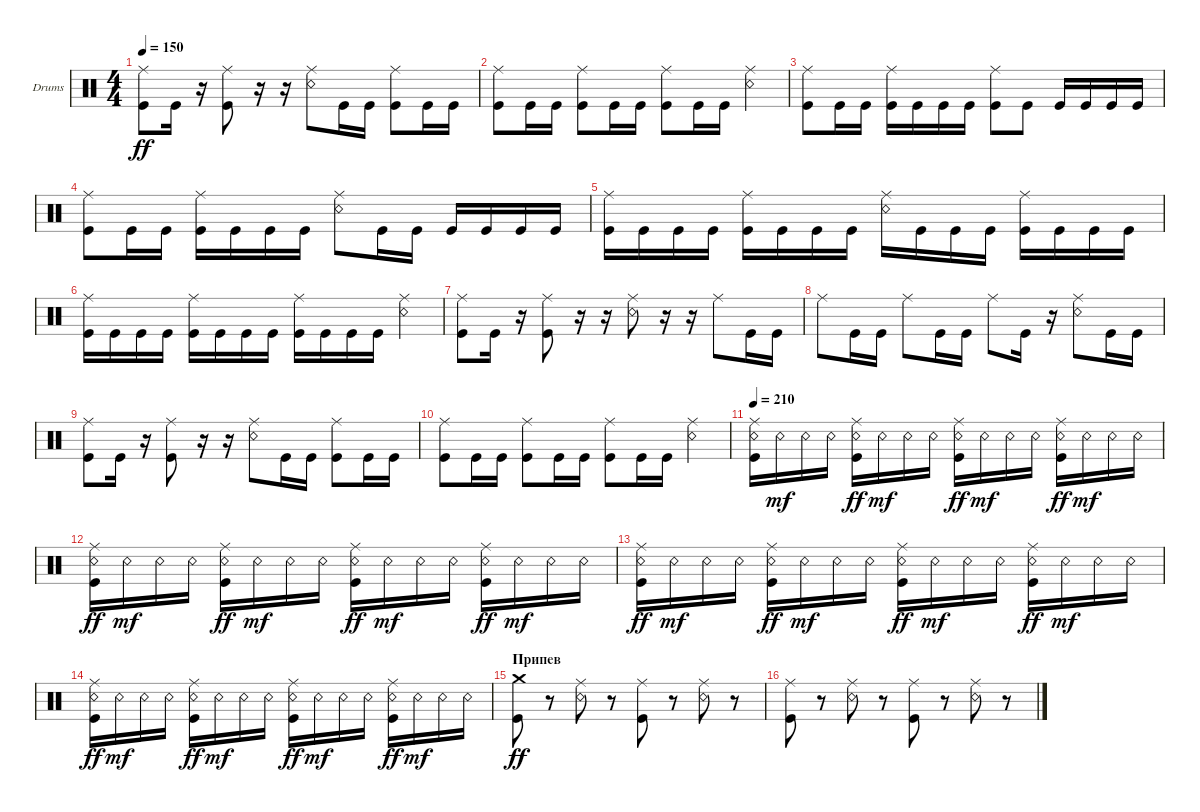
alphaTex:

\defaultSystemsLayout 4
\bracketExtendMode groupsimilarinstruments
\firstSystemTrackNameOrientation horizontal
\otherSystemsTrackNameOrientation horizontal
\track ("Drumkit" "Drums") {instrument percussion}
\staff {score}
\articulation defaults
\ts (4 4)
\tempo 150
\clef neutral
\ks c
("Ride (middle)" "Kick (hit)").8{dy ff} "Kick (hit)".16 r.16 ("Ride (middle)" "Kick (hit)").8 r.16 r.16 ("Ride (middle)" "Snare (rim shot)").8 "Kick (hit)".16 "Kick (hit)".16 ("Kick (hit)" "Ride (middle)").8 "Kick (hit)".16 "Kick (hit)".16 |
("Kick (hit)" "Ride (middle)").8 "Kick (hit)".16 "Kick (hit)".16 ("Kick (hit)" "Ride (middle)").8 "Kick (hit)".16 "Kick (hit)".16 ("Kick (hit)" "Ride (middle)").8 "Kick (hit)".16 "Kick (hit)".16 ("Snare (rim shot)" "Ride (middle)").4 |
("Kick (hit)" "Ride (middle)").8 "Kick (hit)".16 "Kick (hit)".16 ("Kick (hit)" "Ride (middle)").16 "Kick (hit)".16 "Kick (hit)".16 "Kick (hit)".16 ("Kick (hit)" "Ride (middle)").8 "Kick (hit)".8 "Kick (hit)".16 "Kick (hit)".16 "Kick (hit)".16 "Kick (hit)".16 |
("Kick (hit)" "Ride (middle)").8 "Kick (hit)".16 "Kick (hit)".16 ("Kick (hit)" "Ride (middle)").16 "Kick (hit)".16 "Kick (hit)".16 "Kick (hit)".16 ("Ride (middle)" "Snare (rim shot)").8 "Kick (hit)".16 "Kick (hit)".16 "Kick (hit)".16 "Kick (hit)".16 "Kick (hit)".16 "Kick (hit)".16 |
("Kick (hit)" "Ride (middle)").16 "Kick (hit)".16 "Kick (hit)".16 "Kick (hit)".16 ("Kick (hit)" "Ride (middle)").16 "Kick (hit)".16 "Kick (hit)".16 "Kick (hit)".16 ("Snare (rim shot)" "Ride (middle)").16 "Kick (hit)".16 "Kick (hit)".16 "Kick (hit)".16 ("Kick (hit)" "Ride (middle)").16 "Kick (hit)".16 "Kick (hit)".16 "Kick (hit)".16 |
("Kick (hit)" "Ride (middle)").16 "Kick (hit)".16 "Kick (hit)".16 "Kick (hit)".16 ("Kick (hit)" "Ride (middle)").16 "Kick (hit)".16 "Kick (hit)".16 "Kick (hit)".16 ("Kick (hit)" "Ride (middle)").16 "Kick (hit)".16 "Kick (hit)".16 "Kick (hit)".16 ("Ride (middle)" "Snare (rim shot)").4 |
("Ride (middle)" "Kick (hit)").8 "Kick (hit)".16 r.16 ("Ride (middle)" "Kick (hit)").8 r.16 r.16 ("Ride (middle)" "Snare (rim shot)").8 r.16 r.16 "Ride (middle)".8 "Kick (hit)".16 "Kick (hit)".16 |
"Ride (middle)".8 "Kick (hit)".16 "Kick (hit)".16 "Ride (middle)".8 "Kick (hit)".16 "Kick (hit)".16 "Ride (middle)".8 "Kick (hit)".16 r.16 ("Snare (rim shot)" "Ride (middle)").8 "Kick (hit)".16 "Kick (hit)".16 |
("Ride (middle)" "Kick (hit)").8 "Kick (hit)".16 r.16 ("Ride (middle)" "Kick (hit)").8 r.16 r.16 ("Ride (middle)" "Snare (rim shot)").8 "Kick (hit)".16 "Kick (hit)".16 ("Kick (hit)" "Ride (middle)").8 "Kick (hit)".16 "Kick (hit)".16 |
("Kick (hit)" "Ride (middle)").8 "Kick (hit)".16 "Kick (hit)".16 ("Kick (hit)" "Ride (middle)").8 "Kick (hit)".16 "Kick (hit)".16 ("Kick (hit)" "Ride (middle)").8 "Kick (hit)".16 "Kick (hit)".16 ("Snare (rim shot)" "Ride (middle)").4 |
\tempo 210
("Kick (hit)" "Ride (middle)" "Snare (rim shot)").16 "Snare (rim shot)".16{dy mf} "Snare (rim shot)".16 "Snare (rim shot)".16 ("Kick (hit)" "Ride (middle)" "Snare (rim shot)").16{dy ff} "Snare (rim shot)".16{dy mf} "Snare (rim shot)".16 "Snare (rim shot)".16 ("Kick (hit)" "Ride (middle)" "Snare (rim shot)").16{dy ff} "Snare (rim shot)".16{dy mf} "Snare (rim shot)".16 "Snare (rim shot)".16 ("Kick (hit)" "Ride (middle)" "Snare (rim shot)").16{dy ff} "Snare (rim shot)".16{dy mf} "Snare (rim shot)".16 "Snare (rim shot)".16 |
("Kick (hit)" "Ride (middle)" "Snare (rim shot)").16{dy ff} "Snare (rim shot)".16{dy mf} "Snare (rim shot)".16 "Snare (rim shot)".16 ("Kick (hit)" "Ride (middle)" "Snare (rim shot)").16{dy ff} "Snare (rim shot)".16{dy mf} "Snare (rim shot)".16 "Snare (rim shot)".16 ("Kick (hit)" "Ride (middle)" "Snare (rim shot)").16{dy ff} "Snare (rim shot)".16{dy mf} "Snare (rim shot)".16 "Snare (rim shot)".16 ("Kick (hit)" "Ride (middle)" "Snare (rim shot)").16{dy ff} "Snare (rim shot)".16{dy mf} "Snare (rim shot)".16 "Snare (rim shot)".16 |
("Kick (hit)" "Ride (middle)" "Snare (rim shot)").16{dy ff} "Snare (rim shot)".16{dy mf} "Snare (rim shot)".16 "Snare (rim shot)".16 ("Kick (hit)" "Ride (middle)" "Snare (rim shot)").16{dy ff} "Snare (rim shot)".16{dy mf} "Snare (rim shot)".16 "Snare (rim shot)".16 ("Kick (hit)" "Ride (middle)" "Snare (rim shot)").16{dy ff} "Snare (rim shot)".16{dy mf} "Snare (rim shot)".16 "Snare (rim shot)".16 ("Kick (hit)" "Ride (middle)" "Snare (rim shot)").16{dy ff} "Snare (rim shot)".16{dy mf} "Snare (rim shot)".16 "Snare (rim shot)".16 |
("Kick (hit)" "Ride (middle)" "Snare (rim shot)").16{dy ff} "Snare (rim shot)".16{dy mf} "Snare (rim shot)".16 "Snare (rim shot)".16 ("Kick (hit)" "Ride (middle)" "Snare (rim shot)").16{dy ff} "Snare (rim shot)".16{dy mf} "Snare (rim shot)".16 "Snare (rim shot)".16 ("Kick (hit)" "Ride (middle)" "Snare (rim shot)").16{dy ff} "Snare (rim shot)".16{dy mf} "Snare (rim shot)".16 "Snare (rim shot)".16 ("Kick (hit)" "Ride (middle)" "Snare (rim shot)").16{dy ff} "Snare (rim shot)".16{dy mf} "Snare (rim shot)".16 "Snare (rim shot)".16 |
\section ("" "Припев")
("Kick (hit)" "Crash medium (hit)").8{dy ff} r.8 ("Snare (rim shot)" "Ride (middle)").8 r.8 ("Kick (hit)" "Ride (middle)").8 r.8 ("Snare (rim shot)" "Ride (middle)").8 r.8 |
("Kick (hit)" "Ride (middle)").8 r.8 ("Snare (rim shot)" "Ride (middle)").8 r.8 ("Kick (hit)" "Ride (middle)").8 r.8 ("Snare (rim shot)" "Ride (middle)").8 r.8
